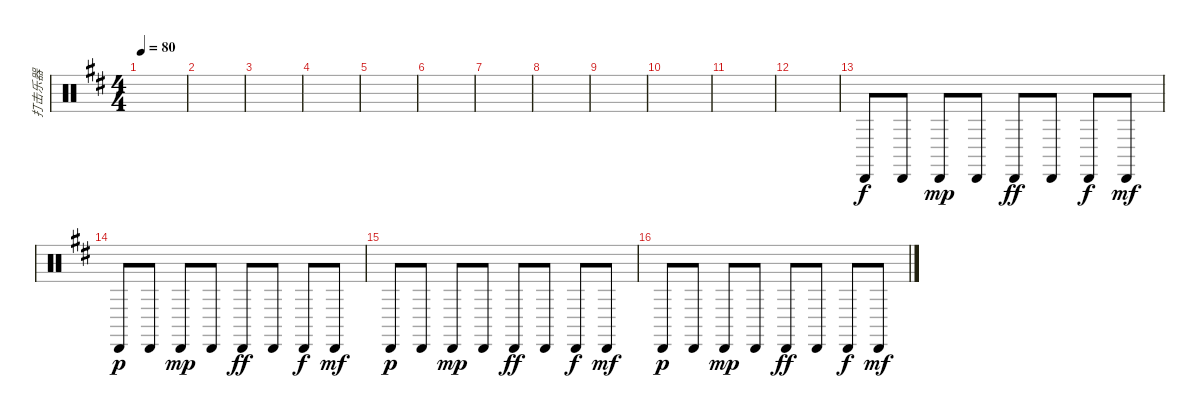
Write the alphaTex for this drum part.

\track ("打击乐器" "打击乐器") {instrument percussion}
\staff {score}
\articulation defaults
\ts (4 4)
\tempo 80
\clef neutral
\ks bminor
|
|
|
|
|
|
|
|
|
|
|
|
"Cabasa (hit)".8 "Cabasa (hit)".8 "Cabasa (hit)".8{dy mp} "Cabasa (hit)".8 "Cabasa (hit)".8{dy ff} "Cabasa (hit)".8 "Cabasa (hit)".8{dy f} "Cabasa (hit)".8{dy mf} |
"Cabasa (hit)".8{dy p} "Cabasa (hit)".8 "Cabasa (hit)".8{dy mp} "Cabasa (hit)".8 "Cabasa (hit)".8{dy ff} "Cabasa (hit)".8 "Cabasa (hit)".8{dy f} "Cabasa (hit)".8{dy mf} |
"Cabasa (hit)".8{dy p} "Cabasa (hit)".8 "Cabasa (hit)".8{dy mp} "Cabasa (hit)".8 "Cabasa (hit)".8{dy ff} "Cabasa (hit)".8 "Cabasa (hit)".8{dy f} "Cabasa (hit)".8{dy mf} |
"Cabasa (hit)".8{dy p} "Cabasa (hit)".8 "Cabasa (hit)".8{dy mp} "Cabasa (hit)".8 "Cabasa (hit)".8{dy ff} "Cabasa (hit)".8 "Cabasa (hit)".8{dy f} "Cabasa (hit)".8{dy mf}
